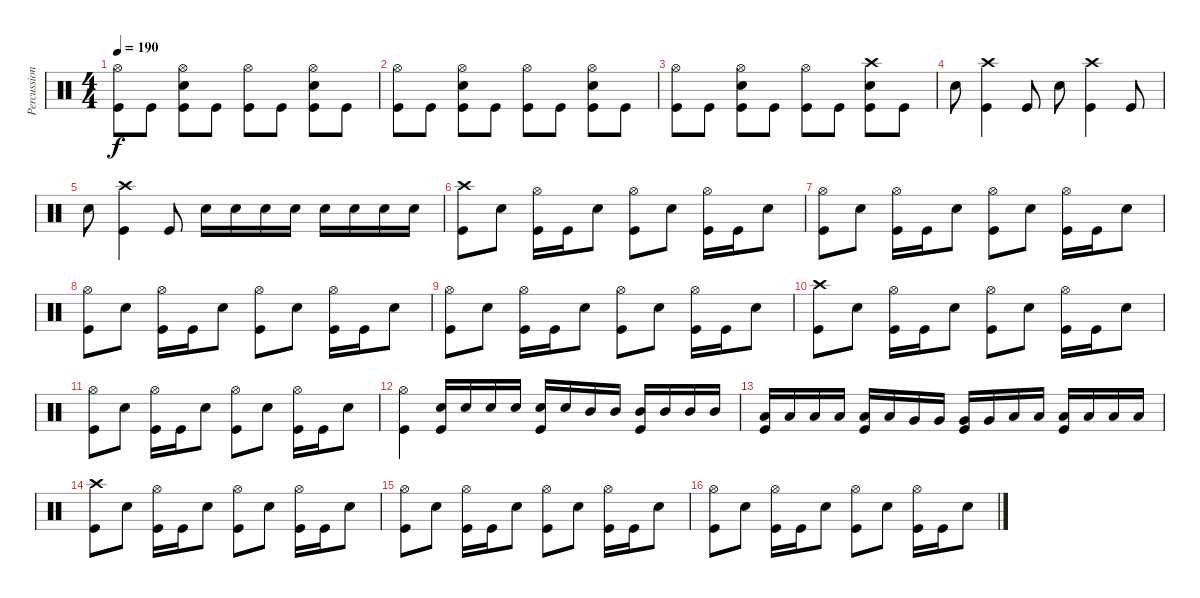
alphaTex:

\track ("Percussion" "Percussion") {instrument percussion}
\staff {score}
\articulation defaults
\ts (4 4)
\tempo 190
\clef neutral
\ks c
("Hi-Hat (open)" "Kick (hit)").8{dy f} "Kick (hit)".8 ("Hi-Hat (open)" "Snare (hit) 2" "Kick (hit)").8 "Kick (hit)".8 ("Hi-Hat (open)" "Kick (hit)").8 "Kick (hit)".8 ("Hi-Hat (open)" "Snare (hit) 2" "Kick (hit)").8 "Kick (hit)".8 |
("Hi-Hat (open)" "Kick (hit)").8 "Kick (hit)".8 ("Hi-Hat (open)" "Snare (hit) 2" "Kick (hit)").8 "Kick (hit)".8 ("Hi-Hat (open)" "Kick (hit)").8 "Kick (hit)".8 ("Hi-Hat (open)" "Snare (hit) 2" "Kick (hit)").8 "Kick (hit)".8 |
("Hi-Hat (open)" "Kick (hit)").8 "Kick (hit)".8 ("Hi-Hat (open)" "Snare (hit) 2" "Kick (hit)").8 "Kick (hit)".8 ("Hi-Hat (open)" "Kick (hit)").8 "Kick (hit)".8 ("Crash high (hit)" "Snare (hit) 2" "Kick (hit)").8 "Kick (hit)".8 |
"Snare (hit) 2".8 ("Crash high (hit)" "Kick (hit)").4 "Kick (hit)".8 "Snare (hit) 2".8 ("Crash high (hit)" "Kick (hit)").4 "Kick (hit)".8 |
"Snare (hit) 2".8 ("Crash high (hit)" "Kick (hit)").4 "Kick (hit)".8 "Snare (hit) 2".16 "Snare (hit) 2".16 "Snare (hit) 2".16 "Snare (hit) 2".16 "Snare (hit) 2".16 "Snare (hit) 2".16 "Snare (hit) 2".16 "Snare (hit) 2".16 |
("Crash high (hit)" "Kick (hit)").8 "Snare (hit) 2".8 ("Hi-Hat (open)" "Kick (hit)").16 "Kick (hit)".16 "Snare (hit) 2".8 ("Hi-Hat (open)" "Kick (hit)").8 "Snare (hit) 2".8 ("Hi-Hat (open)" "Kick (hit)").16 "Kick (hit)".16 "Snare (hit) 2".8 |
("Hi-Hat (open)" "Kick (hit)").8 "Snare (hit) 2".8 ("Hi-Hat (open)" "Kick (hit)").16 "Kick (hit)".16 "Snare (hit) 2".8 ("Hi-Hat (open)" "Kick (hit)").8 "Snare (hit) 2".8 ("Hi-Hat (open)" "Kick (hit)").16 "Kick (hit)".16 "Snare (hit) 2".8 |
("Hi-Hat (open)" "Kick (hit)").8 "Snare (hit) 2".8 ("Hi-Hat (open)" "Kick (hit)").16 "Kick (hit)".16 "Snare (hit) 2".8 ("Hi-Hat (open)" "Kick (hit)").8 "Snare (hit) 2".8 ("Hi-Hat (open)" "Kick (hit)").16 "Kick (hit)".16 "Snare (hit) 2".8 |
("Hi-Hat (open)" "Kick (hit)").8 "Snare (hit) 2".8 ("Hi-Hat (open)" "Kick (hit)").16 "Kick (hit)".16 "Snare (hit) 2".8 ("Hi-Hat (open)" "Kick (hit)").8 "Snare (hit) 2".8 ("Hi-Hat (open)" "Kick (hit)").16 "Kick (hit)".16 "Snare (hit) 2".8 |
("Crash high (hit)" "Kick (hit)").8 "Snare (hit) 2".8 ("Hi-Hat (open)" "Kick (hit)").16 "Kick (hit)".16 "Snare (hit) 2".8 ("Hi-Hat (open)" "Kick (hit)").8 "Snare (hit) 2".8 ("Hi-Hat (open)" "Kick (hit)").16 "Kick (hit)".16 "Snare (hit) 2".8 |
("Hi-Hat (open)" "Kick (hit)").8 "Snare (hit) 2".8 ("Hi-Hat (open)" "Kick (hit)").16 "Kick (hit)".16 "Snare (hit) 2".8 ("Hi-Hat (open)" "Kick (hit)").8 "Snare (hit) 2".8 ("Hi-Hat (open)" "Kick (hit)").16 "Kick (hit)".16 "Snare (hit) 2".8 |
("Hi-Hat (open)" "Kick (hit)").4 ("Snare (hit) 2" "Kick (hit)").16 "Snare (hit) 2".16 "Snare (hit) 2".16 "Snare (hit) 2".16 ("Snare (hit) 2" "Kick (hit)").16 "Snare (hit) 2".16 "Mid Tom (hit)".16 "Mid Tom (hit)".16 ("Mid Tom (hit)" "Kick (hit)").16 "Mid Tom (hit)".16 "Mid Tom (hit)".16 "Mid Tom (hit)".16 |
("Low Tom (hit)" "Kick (hit)").16 "Low Tom (hit)".16 "Low Tom (hit)".16 "Low Tom (hit)".16 ("Low Tom (hit)" "Kick (hit)").16 "Low Tom (hit)".16 "Very Low Tom (hit)".16 "Very Low Tom (hit)".16 ("Very Low Tom (hit)" "Kick (hit)").16 "Very Low Tom (hit)".16 "Low Floor Tom (hit)".16 "Low Floor Tom (hit)".16 ("Low Floor Tom (hit)" "Kick (hit)").16 "Low Floor Tom (hit)".16 "Low Floor Tom (hit)".16 "Low Floor Tom (hit)".16 |
("Crash high (hit)" "Kick (hit)").8 "Snare (hit) 2".8 ("Hi-Hat (open)" "Kick (hit)").16 "Kick (hit)".16 "Snare (hit) 2".8 ("Hi-Hat (open)" "Kick (hit)").8 "Snare (hit) 2".8 ("Hi-Hat (open)" "Kick (hit)").16 "Kick (hit)".16 "Snare (hit) 2".8 |
("Hi-Hat (open)" "Kick (hit)").8 "Snare (hit) 2".8 ("Hi-Hat (open)" "Kick (hit)").16 "Kick (hit)".16 "Snare (hit) 2".8 ("Hi-Hat (open)" "Kick (hit)").8 "Snare (hit) 2".8 ("Hi-Hat (open)" "Kick (hit)").16 "Kick (hit)".16 "Snare (hit) 2".8 |
("Hi-Hat (open)" "Kick (hit)").8 "Snare (hit) 2".8 ("Hi-Hat (open)" "Kick (hit)").16 "Kick (hit)".16 "Snare (hit) 2".8 ("Hi-Hat (open)" "Kick (hit)").8 "Snare (hit) 2".8 ("Hi-Hat (open)" "Kick (hit)").16 "Kick (hit)".16 "Snare (hit) 2".8
